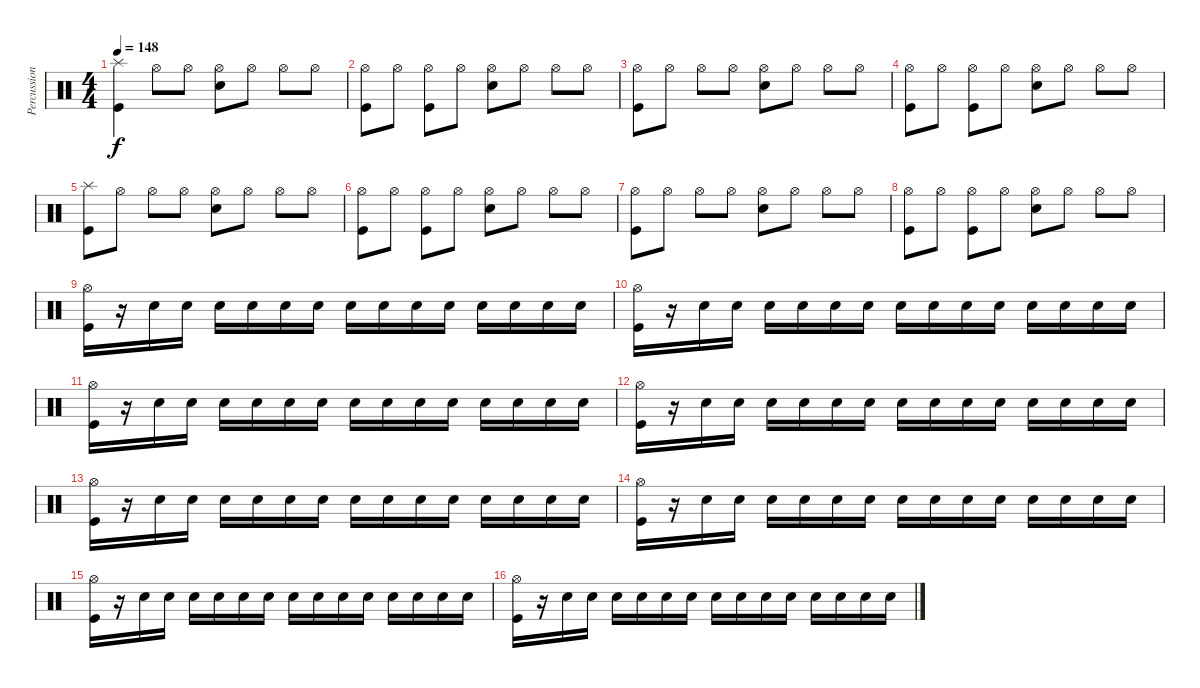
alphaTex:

\track ("Percussion" "Percussion") {instrument percussion}
\staff {score}
\articulation defaults
\ts (4 4)
\tempo 148
\clef neutral
\ks c
("Splash (hit)" "Kick (hit)").4{dy f} "Hi-Hat (open)".8 "Hi-Hat (open)".8 ("Hi-Hat (open)" "Snare (hit) 2").8 "Hi-Hat (open)".8 "Hi-Hat (open)".8 "Hi-Hat (open)".8 |
("Hi-Hat (open)" "Kick (hit)").8 "Hi-Hat (open)".8 ("Hi-Hat (open)" "Kick (hit)").8 "Hi-Hat (open)".8 ("Hi-Hat (open)" "Snare (hit) 2").8 "Hi-Hat (open)".8 "Hi-Hat (open)".8 "Hi-Hat (open)".8 |
("Hi-Hat (open)" "Kick (hit)").8 "Hi-Hat (open)".8 "Hi-Hat (open)".8 "Hi-Hat (open)".8 ("Hi-Hat (open)" "Snare (hit) 2").8 "Hi-Hat (open)".8 "Hi-Hat (open)".8 "Hi-Hat (open)".8 |
("Hi-Hat (open)" "Kick (hit)").8 "Hi-Hat (open)".8 ("Hi-Hat (open)" "Kick (hit)").8 "Hi-Hat (open)".8 ("Hi-Hat (open)" "Snare (hit) 2").8 "Hi-Hat (open)".8 "Hi-Hat (open)".8 "Hi-Hat (open)".8 |
("Splash (hit)" "Kick (hit)").8 "Hi-Hat (open)".8 "Hi-Hat (open)".8 "Hi-Hat (open)".8 ("Hi-Hat (open)" "Snare (hit) 2").8 "Hi-Hat (open)".8 "Hi-Hat (open)".8 "Hi-Hat (open)".8 |
("Hi-Hat (open)" "Kick (hit)").8 "Hi-Hat (open)".8 ("Hi-Hat (open)" "Kick (hit)").8 "Hi-Hat (open)".8 ("Hi-Hat (open)" "Snare (hit) 2").8 "Hi-Hat (open)".8 "Hi-Hat (open)".8 "Hi-Hat (open)".8 |
("Hi-Hat (open)" "Kick (hit)").8 "Hi-Hat (open)".8 "Hi-Hat (open)".8 "Hi-Hat (open)".8 ("Hi-Hat (open)" "Snare (hit) 2").8 "Hi-Hat (open)".8 "Hi-Hat (open)".8 "Hi-Hat (open)".8 |
("Hi-Hat (open)" "Kick (hit)").8 "Hi-Hat (open)".8 ("Hi-Hat (open)" "Kick (hit)").8 "Hi-Hat (open)".8 ("Hi-Hat (open)" "Snare (hit) 2").8 "Hi-Hat (open)".8 "Hi-Hat (open)".8 "Hi-Hat (open)".8 |
("Hi-Hat (open)" "Kick (hit)").16 r.16 "Snare (hit) 2".16 "Snare (hit) 2".16 "Snare (hit) 2".16 "Snare (hit) 2".16 "Snare (hit) 2".16 "Snare (hit) 2".16 "Snare (hit) 2".16 "Snare (hit) 2".16 "Snare (hit) 2".16 "Snare (hit) 2".16 "Snare (hit) 2".16 "Snare (hit) 2".16 "Snare (hit) 2".16 "Snare (hit) 2".16 |
("Hi-Hat (open)" "Kick (hit)").16 r.16 "Snare (hit) 2".16 "Snare (hit) 2".16 "Snare (hit) 2".16 "Snare (hit) 2".16 "Snare (hit) 2".16 "Snare (hit) 2".16 "Snare (hit) 2".16 "Snare (hit) 2".16 "Snare (hit) 2".16 "Snare (hit) 2".16 "Snare (hit) 2".16 "Snare (hit) 2".16 "Snare (hit) 2".16 "Snare (hit) 2".16 |
("Hi-Hat (open)" "Kick (hit)").16 r.16 "Snare (hit) 2".16 "Snare (hit) 2".16 "Snare (hit) 2".16 "Snare (hit) 2".16 "Snare (hit) 2".16 "Snare (hit) 2".16 "Snare (hit) 2".16 "Snare (hit) 2".16 "Snare (hit) 2".16 "Snare (hit) 2".16 "Snare (hit) 2".16 "Snare (hit) 2".16 "Snare (hit) 2".16 "Snare (hit) 2".16 |
("Hi-Hat (open)" "Kick (hit)").16 r.16 "Snare (hit) 2".16 "Snare (hit) 2".16 "Snare (hit) 2".16 "Snare (hit) 2".16 "Snare (hit) 2".16 "Snare (hit) 2".16 "Snare (hit) 2".16 "Snare (hit) 2".16 "Snare (hit) 2".16 "Snare (hit) 2".16 "Snare (hit) 2".16 "Snare (hit) 2".16 "Snare (hit) 2".16 "Snare (hit) 2".16 |
("Hi-Hat (open)" "Kick (hit)").16 r.16 "Snare (hit) 2".16 "Snare (hit) 2".16 "Snare (hit) 2".16 "Snare (hit) 2".16 "Snare (hit) 2".16 "Snare (hit) 2".16 "Snare (hit) 2".16 "Snare (hit) 2".16 "Snare (hit) 2".16 "Snare (hit) 2".16 "Snare (hit) 2".16 "Snare (hit) 2".16 "Snare (hit) 2".16 "Snare (hit) 2".16 |
("Hi-Hat (open)" "Kick (hit)").16 r.16 "Snare (hit) 2".16 "Snare (hit) 2".16 "Snare (hit) 2".16 "Snare (hit) 2".16 "Snare (hit) 2".16 "Snare (hit) 2".16 "Snare (hit) 2".16 "Snare (hit) 2".16 "Snare (hit) 2".16 "Snare (hit) 2".16 "Snare (hit) 2".16 "Snare (hit) 2".16 "Snare (hit) 2".16 "Snare (hit) 2".16 |
("Hi-Hat (open)" "Kick (hit)").16 r.16 "Snare (hit) 2".16 "Snare (hit) 2".16 "Snare (hit) 2".16 "Snare (hit) 2".16 "Snare (hit) 2".16 "Snare (hit) 2".16 "Snare (hit) 2".16 "Snare (hit) 2".16 "Snare (hit) 2".16 "Snare (hit) 2".16 "Snare (hit) 2".16 "Snare (hit) 2".16 "Snare (hit) 2".16 "Snare (hit) 2".16 |
("Hi-Hat (open)" "Kick (hit)").16 r.16 "Snare (hit) 2".16 "Snare (hit) 2".16 "Snare (hit) 2".16 "Snare (hit) 2".16 "Snare (hit) 2".16 "Snare (hit) 2".16 "Snare (hit) 2".16 "Snare (hit) 2".16 "Snare (hit) 2".16 "Snare (hit) 2".16 "Snare (hit) 2".16 "Snare (hit) 2".16 "Snare (hit) 2".16 "Snare (hit) 2".16
